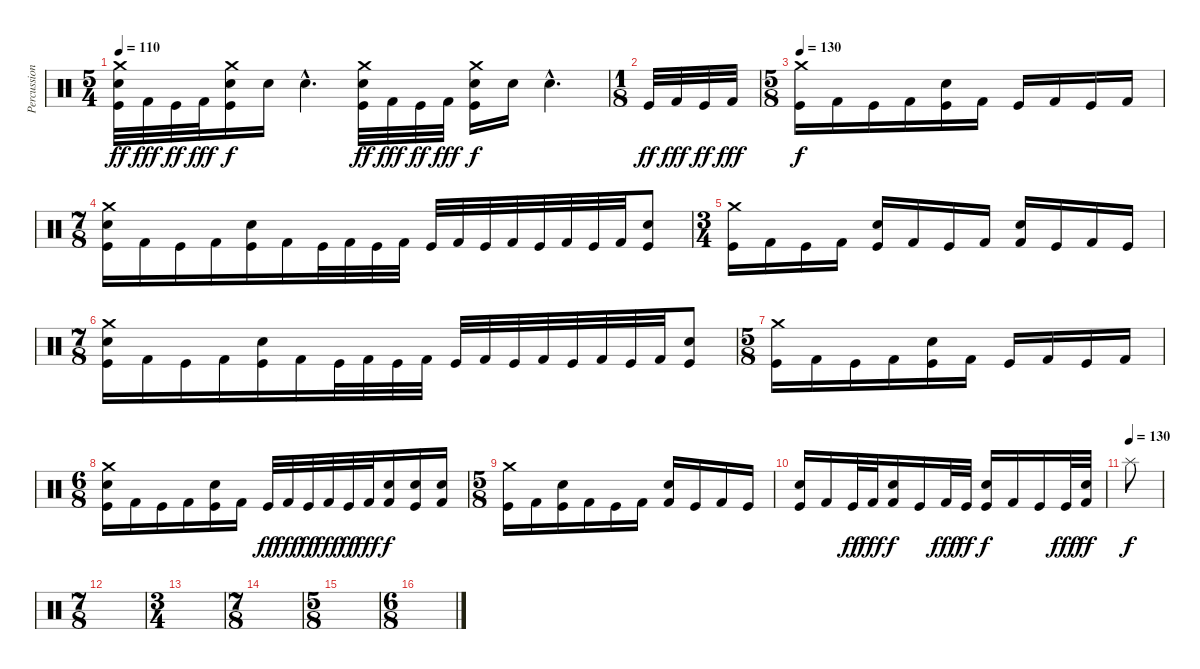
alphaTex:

\track ("Percussioni" "Percussion") {instrument percussion}
\staff {score}
\articulation defaults
\ts (5 4)
\tempo 110
\clef neutral
\ks c
("Crash medium (hit)" "Snare (hit) 2" "Kick (hit)").32{dy ff} "Kick (hit) 2".32{dy fff} "Kick (hit)".32{dy ff} "Kick (hit) 2".32{dy fff} ("Crash medium (hit)" "Snare (hit) 2" "Kick (hit)").16{dy f} "Snare (hit) 2".16 "Snare (hit) 2"{hac}.4{d} ("Crash medium (hit)" "Snare (hit) 2" "Kick (hit)").32{dy ff} "Kick (hit) 2".32{dy fff} "Kick (hit)".32{dy ff} "Kick (hit) 2".32{dy fff} ("Crash medium (hit)" "Snare (hit) 2" "Kick (hit)").16{dy f} "Snare (hit) 2".16 "Snare (hit) 2"{hac}.4{d} |
\ts (1 8)
"Kick (hit)".32{dy ff} "Kick (hit) 2".32{dy fff} "Kick (hit)".32{dy ff} "Kick (hit) 2".32{dy fff} |
\ts (5 8)
\tempo 130
("Crash medium (hit)" "Kick (hit)").16{dy f} "Kick (hit) 2".16 "Kick (hit)".16 "Kick (hit) 2".16 ("Snare (hit) 2" "Kick (hit)").16 "Kick (hit) 2".16 "Kick (hit)".16 "Kick (hit) 2".16 "Kick (hit)".16 "Kick (hit) 2".16 |
\ts (7 8)
("Crash medium (hit)" "Snare (hit) 2" "Kick (hit)").16 "Kick (hit) 2".16 "Kick (hit)".16 "Kick (hit) 2".16 ("Snare (hit) 2" "Kick (hit)").16 "Kick (hit) 2".16 "Kick (hit)".32 "Kick (hit) 2".32 "Kick (hit)".32 "Kick (hit) 2".32 "Kick (hit)".32 "Kick (hit) 2".32 "Kick (hit)".32 "Kick (hit) 2".32 "Kick (hit)".32 "Kick (hit) 2".32 "Kick (hit)".32 "Kick (hit) 2".32 ("Snare (hit) 2" "Kick (hit)").8 |
\ts (3 4)
("Crash medium (hit)" "Kick (hit)").16 "Kick (hit) 2".16 "Kick (hit)".16 "Kick (hit) 2".16 ("Snare (hit) 2" "Kick (hit)").16 "Kick (hit) 2".16 "Kick (hit)".16 "Kick (hit) 2".16 ("Snare (hit) 2" "Kick (hit) 2").16 "Kick (hit)".16 "Kick (hit) 2".16 "Kick (hit)".16 |
\ts (7 8)
("Crash medium (hit)" "Snare (hit) 2" "Kick (hit)").16 "Kick (hit) 2".16 "Kick (hit)".16 "Kick (hit) 2".16 ("Snare (hit) 2" "Kick (hit)").16 "Kick (hit) 2".16 "Kick (hit)".32 "Kick (hit) 2".32 "Kick (hit)".32 "Kick (hit) 2".32 "Kick (hit)".32 "Kick (hit) 2".32 "Kick (hit)".32 "Kick (hit) 2".32 "Kick (hit)".32 "Kick (hit) 2".32 "Kick (hit)".32 "Kick (hit) 2".32 ("Snare (hit) 2" "Kick (hit)").8 |
\ts (5 8)
("Crash medium (hit)" "Kick (hit)").16 "Kick (hit) 2".16 "Kick (hit)".16 "Kick (hit) 2".16 ("Snare (hit) 2" "Kick (hit)").16 "Kick (hit) 2".16 "Kick (hit)".16 "Kick (hit) 2".16 "Kick (hit)".16 "Kick (hit) 2".16 |
\ts (6 8)
("Crash medium (hit)" "Snare (hit) 2" "Kick (hit)").16 "Kick (hit) 2".16 "Kick (hit)".16 "Kick (hit) 2".16 ("Snare (hit) 2" "Kick (hit)").16 "Kick (hit) 2".16 "Kick (hit)".32{dy ff} "Kick (hit) 2".32{dy fff} "Kick (hit)".32{dy ff} "Kick (hit) 2".32{dy fff} "Kick (hit)".32{dy ff} "Kick (hit) 2".32{dy fff} ("Snare (hit) 2" "Kick (hit) 2").16{dy f} ("Snare (hit) 2" "Kick (hit)").16 ("Snare (hit) 2" "Kick (hit) 2").16 |
\ts (5 8)
("Crash medium (hit)" "Kick (hit)").16 "Kick (hit) 2".16 ("Snare (hit) 2" "Kick (hit)").16 "Kick (hit) 2".16 "Kick (hit)".16 "Kick (hit) 2".16 ("Snare (hit) 2" "Kick (hit) 2").16 "Kick (hit)".16 "Kick (hit) 2".16 "Kick (hit)".16 |
("Snare (hit) 2" "Kick (hit)").16 "Kick (hit) 2".16 "Kick (hit)".32{dy ff} "Kick (hit) 2".32{dy fff} ("Snare (hit) 2" "Kick (hit) 2").16{dy f} "Kick (hit)".16 "Kick (hit) 2".32{dy fff} "Kick (hit)".32{dy ff} ("Snare (hit) 2" "Kick (hit)").16{dy f} "Kick (hit) 2".16 "Kick (hit)".16 "Kick (hit)".32{dy fff} ("Snare (hit) 2" "Kick (hit) 2").32{dy ff} |
\tempo (130)
"Splash (hit)".8{dy f} |
\ts (7 8)
|
\ts (3 4)
|
\ts (7 8)
|
\ts (5 8)
|
\ts (6 8)
